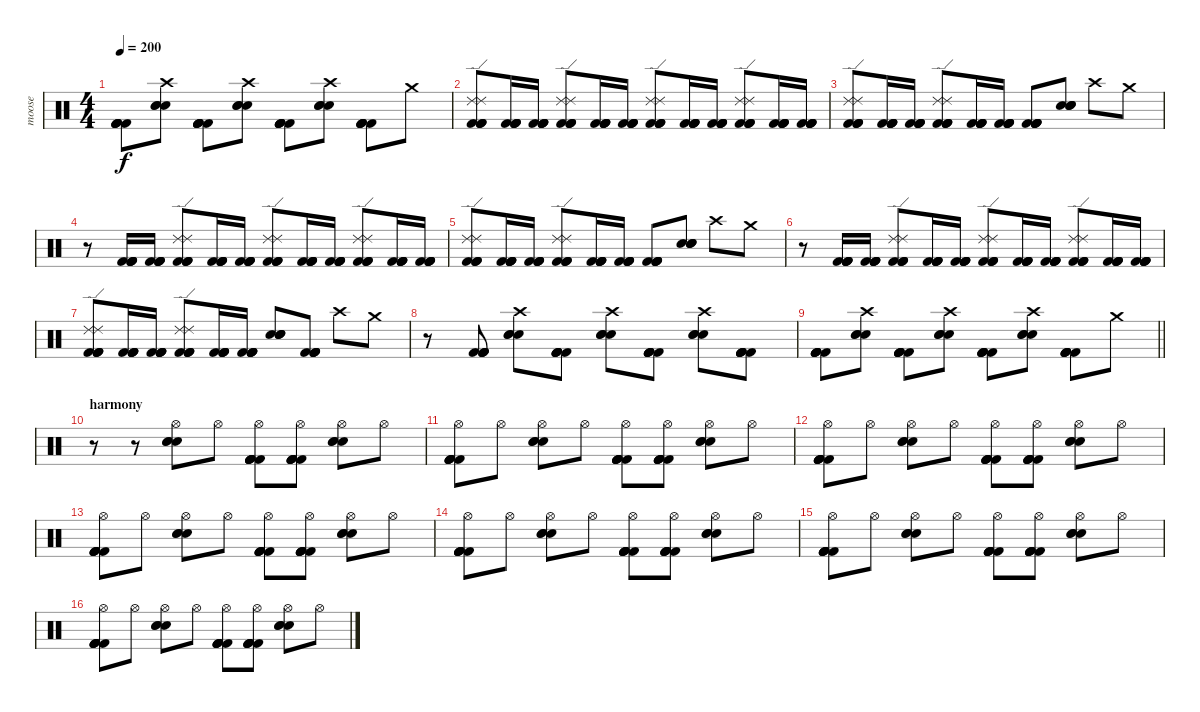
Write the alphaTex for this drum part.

\track ("moose" "moose") {instrument percussion}
\staff {score}
\articulation defaults
\ts (4 4)
\tempo 200
\clef neutral
\ks c
("Kick (hit) 2" "Kick (hit) 2" "Kick (hit) 2" "Kick (hit) 2" "Kick (hit) 2").8{dy f} ("Electric Snare (hit)" "Electric Snare (hit)" "Electric Snare (hit)" "Crash high (hit)").8 ("Kick (hit) 2" "Kick (hit) 2" "Kick (hit) 2" "Kick (hit) 2" "Kick (hit) 2").8 ("Electric Snare (hit)" "Electric Snare (hit)" "Electric Snare (hit)" "Crash high (hit)").8 ("Kick (hit) 2" "Kick (hit) 2" "Kick (hit) 2" "Kick (hit) 2" "Kick (hit) 2").8 ("Electric Snare (hit)" "Electric Snare (hit)" "Electric Snare (hit)" "Crash high (hit)").8 ("Kick (hit) 2" "Kick (hit) 2" "Kick (hit) 2" "Kick (hit) 2" "Kick (hit) 2").8 "Crash medium (hit)".8 |
("Kick (hit) 2" "Kick (hit) 2" "Kick (hit) 2" "Kick (hit) 2" "Ride (edge) 2" "Ride (edge) 2").8 ("Kick (hit) 2" "Kick (hit) 2" "Kick (hit) 2" "Kick (hit) 2" "Kick (hit) 2").16 ("Kick (hit) 2" "Kick (hit) 2" "Kick (hit) 2" "Kick (hit) 2" "Kick (hit) 2").16 ("Kick (hit) 2" "Kick (hit) 2" "Kick (hit) 2" "Kick (hit) 2" "Ride (edge) 2" "Ride (edge) 2").8 ("Kick (hit) 2" "Kick (hit) 2" "Kick (hit) 2" "Kick (hit) 2" "Kick (hit) 2").16 ("Kick (hit) 2" "Kick (hit) 2" "Kick (hit) 2" "Kick (hit) 2" "Kick (hit) 2").16 ("Kick (hit) 2" "Kick (hit) 2" "Kick (hit) 2" "Kick (hit) 2" "Ride (edge) 2" "Ride (edge) 2").8 ("Kick (hit) 2" "Kick (hit) 2" "Kick (hit) 2" "Kick (hit) 2" "Kick (hit) 2").16 ("Kick (hit) 2" "Kick (hit) 2" "Kick (hit) 2" "Kick (hit) 2" "Kick (hit) 2").16 ("Kick (hit) 2" "Kick (hit) 2" "Kick (hit) 2" "Kick (hit) 2" "Ride (edge) 2" "Ride (edge) 2").8 ("Kick (hit) 2" "Kick (hit) 2" "Kick (hit) 2" "Kick (hit) 2" "Kick (hit) 2").16 ("Kick (hit) 2" "Kick (hit) 2" "Kick (hit) 2" "Kick (hit) 2" "Kick (hit) 2").16 |
("Kick (hit) 2" "Kick (hit) 2" "Kick (hit) 2" "Kick (hit) 2" "Ride (edge) 2" "Ride (edge) 2").8 ("Kick (hit) 2" "Kick (hit) 2" "Kick (hit) 2" "Kick (hit) 2" "Kick (hit) 2").16 ("Kick (hit) 2" "Kick (hit) 2" "Kick (hit) 2" "Kick (hit) 2" "Kick (hit) 2").16 ("Kick (hit) 2" "Kick (hit) 2" "Kick (hit) 2" "Kick (hit) 2" "Ride (edge) 2" "Ride (edge) 2").8 ("Kick (hit) 2" "Kick (hit) 2" "Kick (hit) 2" "Kick (hit) 2" "Kick (hit) 2").16 ("Kick (hit) 2" "Kick (hit) 2" "Kick (hit) 2" "Kick (hit) 2" "Kick (hit) 2").16 ("Kick (hit) 2" "Kick (hit) 2" "Kick (hit) 2" "Kick (hit) 2" "Kick (hit) 2").8 ("Electric Snare (hit)" "Electric Snare (hit)" "Electric Snare (hit)" "Electric Snare (hit)").8 "Crash high (hit)".8 "Crash medium (hit)".8 |
r.8 ("Kick (hit) 2" "Kick (hit) 2" "Kick (hit) 2" "Kick (hit) 2" "Kick (hit) 2").16 ("Kick (hit) 2" "Kick (hit) 2" "Kick (hit) 2" "Kick (hit) 2" "Kick (hit) 2").16 ("Kick (hit) 2" "Kick (hit) 2" "Kick (hit) 2" "Kick (hit) 2" "Ride (edge) 2" "Ride (edge) 2").8 ("Kick (hit) 2" "Kick (hit) 2" "Kick (hit) 2" "Kick (hit) 2" "Kick (hit) 2").16 ("Kick (hit) 2" "Kick (hit) 2" "Kick (hit) 2" "Kick (hit) 2" "Kick (hit) 2").16 ("Kick (hit) 2" "Kick (hit) 2" "Kick (hit) 2" "Kick (hit) 2" "Ride (edge) 2" "Ride (edge) 2").8 ("Kick (hit) 2" "Kick (hit) 2" "Kick (hit) 2" "Kick (hit) 2" "Kick (hit) 2").16 ("Kick (hit) 2" "Kick (hit) 2" "Kick (hit) 2" "Kick (hit) 2" "Kick (hit) 2").16 ("Kick (hit) 2" "Kick (hit) 2" "Kick (hit) 2" "Kick (hit) 2" "Ride (edge) 2" "Ride (edge) 2").8 ("Kick (hit) 2" "Kick (hit) 2" "Kick (hit) 2" "Kick (hit) 2" "Kick (hit) 2").16 ("Kick (hit) 2" "Kick (hit) 2" "Kick (hit) 2" "Kick (hit) 2" "Kick (hit) 2").16 |
("Kick (hit) 2" "Kick (hit) 2" "Kick (hit) 2" "Kick (hit) 2" "Ride (edge) 2" "Ride (edge) 2").8 ("Kick (hit) 2" "Kick (hit) 2" "Kick (hit) 2" "Kick (hit) 2" "Kick (hit) 2").16 ("Kick (hit) 2" "Kick (hit) 2" "Kick (hit) 2" "Kick (hit) 2" "Kick (hit) 2").16 ("Kick (hit) 2" "Kick (hit) 2" "Kick (hit) 2" "Kick (hit) 2" "Ride (edge) 2" "Ride (edge) 2").8 ("Kick (hit) 2" "Kick (hit) 2" "Kick (hit) 2" "Kick (hit) 2" "Kick (hit) 2").16 ("Kick (hit) 2" "Kick (hit) 2" "Kick (hit) 2" "Kick (hit) 2" "Kick (hit) 2").16 ("Kick (hit) 2" "Kick (hit) 2" "Kick (hit) 2" "Kick (hit) 2" "Kick (hit) 2").8 ("Electric Snare (hit)" "Electric Snare (hit)" "Electric Snare (hit)" "Electric Snare (hit)").8 "Crash high (hit)".8 "Crash medium (hit)".8 |
r.8 ("Kick (hit) 2" "Kick (hit) 2" "Kick (hit) 2" "Kick (hit) 2" "Kick (hit) 2").16 ("Kick (hit) 2" "Kick (hit) 2" "Kick (hit) 2" "Kick (hit) 2" "Kick (hit) 2").16 ("Kick (hit) 2" "Kick (hit) 2" "Kick (hit) 2" "Kick (hit) 2" "Ride (edge) 2" "Ride (edge) 2").8 ("Kick (hit) 2" "Kick (hit) 2" "Kick (hit) 2" "Kick (hit) 2" "Kick (hit) 2").16 ("Kick (hit) 2" "Kick (hit) 2" "Kick (hit) 2" "Kick (hit) 2" "Kick (hit) 2").16 ("Kick (hit) 2" "Kick (hit) 2" "Kick (hit) 2" "Kick (hit) 2" "Ride (edge) 2" "Ride (edge) 2").8 ("Kick (hit) 2" "Kick (hit) 2" "Kick (hit) 2" "Kick (hit) 2" "Kick (hit) 2").16 ("Kick (hit) 2" "Kick (hit) 2" "Kick (hit) 2" "Kick (hit) 2" "Kick (hit) 2").16 ("Kick (hit) 2" "Kick (hit) 2" "Kick (hit) 2" "Kick (hit) 2" "Ride (edge) 2" "Ride (edge) 2").8 ("Kick (hit) 2" "Kick (hit) 2" "Kick (hit) 2" "Kick (hit) 2" "Kick (hit) 2").16 ("Kick (hit) 2" "Kick (hit) 2" "Kick (hit) 2" "Kick (hit) 2" "Kick (hit) 2").16 |
("Kick (hit) 2" "Kick (hit) 2" "Kick (hit) 2" "Kick (hit) 2" "Ride (edge) 2" "Ride (edge) 2").8 ("Kick (hit) 2" "Kick (hit) 2" "Kick (hit) 2" "Kick (hit) 2" "Kick (hit) 2").16 ("Kick (hit) 2" "Kick (hit) 2" "Kick (hit) 2" "Kick (hit) 2" "Kick (hit) 2").16 ("Kick (hit) 2" "Kick (hit) 2" "Kick (hit) 2" "Kick (hit) 2" "Ride (edge) 2" "Ride (edge) 2").8 ("Kick (hit) 2" "Kick (hit) 2" "Kick (hit) 2" "Kick (hit) 2" "Kick (hit) 2").16 ("Kick (hit) 2" "Kick (hit) 2" "Kick (hit) 2" "Kick (hit) 2" "Kick (hit) 2").16 ("Electric Snare (hit)" "Electric Snare (hit)" "Electric Snare (hit)" "Electric Snare (hit)").8 ("Kick (hit) 2" "Kick (hit) 2" "Kick (hit) 2" "Kick (hit) 2" "Kick (hit) 2").8 "Crash high (hit)".8 "Crash medium (hit)".8 |
r.8 ("Kick (hit) 2" "Kick (hit) 2" "Kick (hit) 2" "Kick (hit) 2" "Kick (hit) 2").8 ("Electric Snare (hit)" "Electric Snare (hit)" "Electric Snare (hit)" "Crash high (hit)").8 ("Kick (hit) 2" "Kick (hit) 2" "Kick (hit) 2" "Kick (hit) 2" "Kick (hit) 2").8 ("Electric Snare (hit)" "Electric Snare (hit)" "Electric Snare (hit)" "Crash high (hit)").8 ("Kick (hit) 2" "Kick (hit) 2" "Kick (hit) 2" "Kick (hit) 2" "Kick (hit) 2").8 ("Electric Snare (hit)" "Electric Snare (hit)" "Electric Snare (hit)" "Crash high (hit)").8 ("Kick (hit) 2" "Kick (hit) 2" "Kick (hit) 2" "Kick (hit) 2" "Kick (hit) 2").8 |
\barLineRight lightlight
("Kick (hit) 2" "Kick (hit) 2" "Kick (hit) 2" "Kick (hit) 2" "Kick (hit) 2").8 ("Electric Snare (hit)" "Electric Snare (hit)" "Electric Snare (hit)" "Crash high (hit)").8 ("Kick (hit) 2" "Kick (hit) 2" "Kick (hit) 2" "Kick (hit) 2" "Kick (hit) 2").8 ("Electric Snare (hit)" "Electric Snare (hit)" "Electric Snare (hit)" "Crash high (hit)").8 ("Kick (hit) 2" "Kick (hit) 2" "Kick (hit) 2" "Kick (hit) 2" "Kick (hit) 2").8 ("Electric Snare (hit)" "Electric Snare (hit)" "Electric Snare (hit)" "Crash high (hit)").8 ("Kick (hit) 2" "Kick (hit) 2" "Kick (hit) 2" "Kick (hit) 2" "Kick (hit) 2").8 "Crash medium (hit)".8 |
\section ("" "harmony")
r.8 r.8 ("Electric Snare (hit)" "Electric Snare (hit)" "Electric Snare (hit)" "Hi-Hat (open)").8 "Hi-Hat (open)".8 ("Kick (hit) 2" "Kick (hit) 2" "Kick (hit) 2" "Kick (hit) 2" "Kick (hit) 2" "Hi-Hat (open)").8 ("Kick (hit) 2" "Kick (hit) 2" "Kick (hit) 2" "Kick (hit) 2" "Kick (hit) 2" "Hi-Hat (open)").8 ("Electric Snare (hit)" "Electric Snare (hit)" "Electric Snare (hit)" "Hi-Hat (open)").8 "Hi-Hat (open)".8 |
("Kick (hit) 2" "Kick (hit) 2" "Kick (hit) 2" "Kick (hit) 2" "Kick (hit) 2" "Hi-Hat (open)").8 "Hi-Hat (open)".8 ("Electric Snare (hit)" "Electric Snare (hit)" "Electric Snare (hit)" "Hi-Hat (open)").8 "Hi-Hat (open)".8 ("Kick (hit) 2" "Kick (hit) 2" "Kick (hit) 2" "Kick (hit) 2" "Kick (hit) 2" "Hi-Hat (open)").8 ("Kick (hit) 2" "Kick (hit) 2" "Kick (hit) 2" "Kick (hit) 2" "Kick (hit) 2" "Hi-Hat (open)").8 ("Electric Snare (hit)" "Electric Snare (hit)" "Electric Snare (hit)" "Hi-Hat (open)").8 "Hi-Hat (open)".8 |
("Kick (hit) 2" "Kick (hit) 2" "Kick (hit) 2" "Kick (hit) 2" "Kick (hit) 2" "Hi-Hat (open)").8 "Hi-Hat (open)".8 ("Electric Snare (hit)" "Electric Snare (hit)" "Electric Snare (hit)" "Hi-Hat (open)").8 "Hi-Hat (open)".8 ("Kick (hit) 2" "Kick (hit) 2" "Kick (hit) 2" "Kick (hit) 2" "Kick (hit) 2" "Hi-Hat (open)").8 ("Kick (hit) 2" "Kick (hit) 2" "Kick (hit) 2" "Kick (hit) 2" "Kick (hit) 2" "Hi-Hat (open)").8 ("Electric Snare (hit)" "Electric Snare (hit)" "Electric Snare (hit)" "Hi-Hat (open)").8 "Hi-Hat (open)".8 |
("Kick (hit) 2" "Kick (hit) 2" "Kick (hit) 2" "Kick (hit) 2" "Kick (hit) 2" "Hi-Hat (open)").8 "Hi-Hat (open)".8 ("Electric Snare (hit)" "Electric Snare (hit)" "Electric Snare (hit)" "Hi-Hat (open)").8 "Hi-Hat (open)".8 ("Kick (hit) 2" "Kick (hit) 2" "Kick (hit) 2" "Kick (hit) 2" "Kick (hit) 2" "Hi-Hat (open)").8 ("Kick (hit) 2" "Kick (hit) 2" "Kick (hit) 2" "Kick (hit) 2" "Kick (hit) 2" "Hi-Hat (open)").8 ("Electric Snare (hit)" "Electric Snare (hit)" "Electric Snare (hit)" "Hi-Hat (open)").8 "Hi-Hat (open)".8 |
("Kick (hit) 2" "Kick (hit) 2" "Kick (hit) 2" "Kick (hit) 2" "Kick (hit) 2" "Hi-Hat (open)").8 "Hi-Hat (open)".8 ("Electric Snare (hit)" "Electric Snare (hit)" "Electric Snare (hit)" "Hi-Hat (open)").8 "Hi-Hat (open)".8 ("Kick (hit) 2" "Kick (hit) 2" "Kick (hit) 2" "Kick (hit) 2" "Kick (hit) 2" "Hi-Hat (open)").8 ("Kick (hit) 2" "Kick (hit) 2" "Kick (hit) 2" "Kick (hit) 2" "Kick (hit) 2" "Hi-Hat (open)").8 ("Electric Snare (hit)" "Electric Snare (hit)" "Electric Snare (hit)" "Hi-Hat (open)").8 "Hi-Hat (open)".8 |
("Kick (hit) 2" "Kick (hit) 2" "Kick (hit) 2" "Kick (hit) 2" "Kick (hit) 2" "Hi-Hat (open)").8 "Hi-Hat (open)".8 ("Electric Snare (hit)" "Electric Snare (hit)" "Electric Snare (hit)" "Hi-Hat (open)").8 "Hi-Hat (open)".8 ("Kick (hit) 2" "Kick (hit) 2" "Kick (hit) 2" "Kick (hit) 2" "Kick (hit) 2" "Hi-Hat (open)").8 ("Kick (hit) 2" "Kick (hit) 2" "Kick (hit) 2" "Kick (hit) 2" "Kick (hit) 2" "Hi-Hat (open)").8 ("Electric Snare (hit)" "Electric Snare (hit)" "Electric Snare (hit)" "Hi-Hat (open)").8 "Hi-Hat (open)".8 |
("Kick (hit) 2" "Kick (hit) 2" "Kick (hit) 2" "Kick (hit) 2" "Kick (hit) 2" "Hi-Hat (open)").8 "Hi-Hat (open)".8 ("Electric Snare (hit)" "Electric Snare (hit)" "Electric Snare (hit)" "Hi-Hat (open)").8 "Hi-Hat (open)".8 ("Kick (hit) 2" "Kick (hit) 2" "Kick (hit) 2" "Kick (hit) 2" "Kick (hit) 2" "Hi-Hat (open)").8 ("Kick (hit) 2" "Kick (hit) 2" "Kick (hit) 2" "Kick (hit) 2" "Kick (hit) 2" "Hi-Hat (open)").8 ("Electric Snare (hit)" "Electric Snare (hit)" "Electric Snare (hit)" "Hi-Hat (open)").8 "Hi-Hat (open)".8
